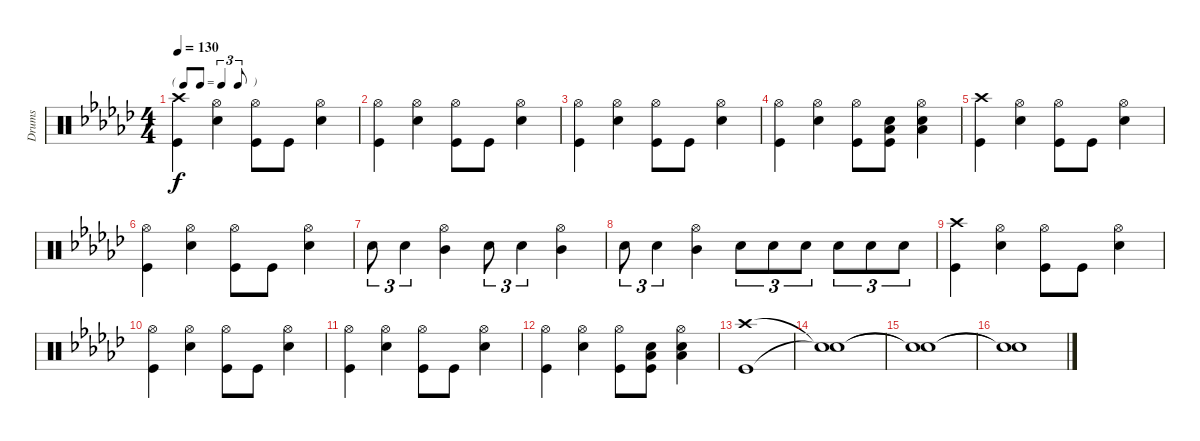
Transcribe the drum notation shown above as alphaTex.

\track ("Drums" "Drums") {instrument percussion}
\staff {score}
\articulation defaults
\ts (4 4)
\tf triplet8th
\tempo 130
\clef neutral
\ks gb
("Crash high (hit)" "Kick (hit)").4{dy f} ("Hi-Hat (open)" "Snare (hit) 2").4 ("Hi-Hat (open)" "Kick (hit)").8 "Kick (hit)".8 ("Hi-Hat (open)" "Snare (hit) 2").4 |
("Hi-Hat (open)" "Kick (hit)").4 ("Hi-Hat (open)" "Snare (hit) 2").4 ("Hi-Hat (open)" "Kick (hit)").8 "Kick (hit)".8 ("Hi-Hat (open)" "Snare (hit) 2").4 |
("Hi-Hat (open)" "Kick (hit)").4 ("Hi-Hat (open)" "Snare (hit) 2").4 ("Hi-Hat (open)" "Kick (hit)").8 "Kick (hit)".8 ("Hi-Hat (open)" "Snare (hit) 2").4 |
("Hi-Hat (open)" "Kick (hit)").4 ("Hi-Hat (open)" "Snare (hit) 2").4 ("Hi-Hat (open)" "Kick (hit)").8 ("Low Tom (hit)" "Snare (hit) 2" "Kick (hit)").8 ("Hi-Hat (open)" "Low Tom (hit)" "Snare (hit) 2").4 |
("Crash high (hit)" "Kick (hit)").4 ("Hi-Hat (open)" "Snare (hit) 2").4 ("Hi-Hat (open)" "Kick (hit)").8 "Kick (hit)".8 ("Hi-Hat (open)" "Snare (hit) 2").4 |
("Hi-Hat (open)" "Kick (hit)").4 ("Hi-Hat (open)" "Snare (hit) 2").4 ("Hi-Hat (open)" "Kick (hit)").8 "Kick (hit)".8 ("Hi-Hat (open)" "Snare (hit) 2").4 |
"Snare (hit) 2".8{tu (3 2)} "Snare (hit) 2".4{tu (3 2)} ("Hi-Hat (open)" "Mid Tom (hit)").4 "Snare (hit) 2".8{tu (3 2)} "Snare (hit) 2".4{tu (3 2)} ("Hi-Hat (open)" "Mid Tom (hit)").4 |
"Snare (hit) 2".8{tu (3 2)} "Snare (hit) 2".4{tu (3 2)} ("Hi-Hat (open)" "Mid Tom (hit)").4 "Snare (hit) 2".8{tu (3 2)} "Snare (hit) 2".8{tu (3 2)} "Snare (hit) 2".8{tu (3 2)} "Snare (hit) 2".8{tu (3 2)} "Snare (hit) 2".8{tu (3 2)} "Snare (hit) 2".8{tu (3 2)} |
("Crash high (hit)" "Kick (hit)").4 ("Hi-Hat (open)" "Snare (hit) 2").4 ("Hi-Hat (open)" "Kick (hit)").8 "Kick (hit)".8 ("Hi-Hat (open)" "Snare (hit) 2").4 |
("Hi-Hat (open)" "Kick (hit)").4 ("Hi-Hat (open)" "Snare (hit) 2").4 ("Hi-Hat (open)" "Kick (hit)").8 "Kick (hit)".8 ("Hi-Hat (open)" "Snare (hit) 2").4 |
("Hi-Hat (open)" "Kick (hit)").4 ("Hi-Hat (open)" "Snare (hit) 2").4 ("Hi-Hat (open)" "Kick (hit)").8 "Kick (hit)".8 ("Hi-Hat (open)" "Snare (hit) 2").4 |
("Hi-Hat (open)" "Kick (hit)").4 ("Hi-Hat (open)" "Snare (hit) 2").4 ("Hi-Hat (open)" "Kick (hit)").8 ("Low Tom (hit)" "Snare (hit) 2" "Kick (hit)").8 ("Hi-Hat (open)" "Low Tom (hit)" "Snare (hit) 2").4 |
("Crash high (hit)" "Kick (hit)").1 |
("Snare (hit)"{t} "Snare (hit)"{t}).1 |
("Snare (hit)"{t} "Snare (hit)"{t}).1 |
("Snare (hit)"{t} "Snare (hit)"{t}).1
